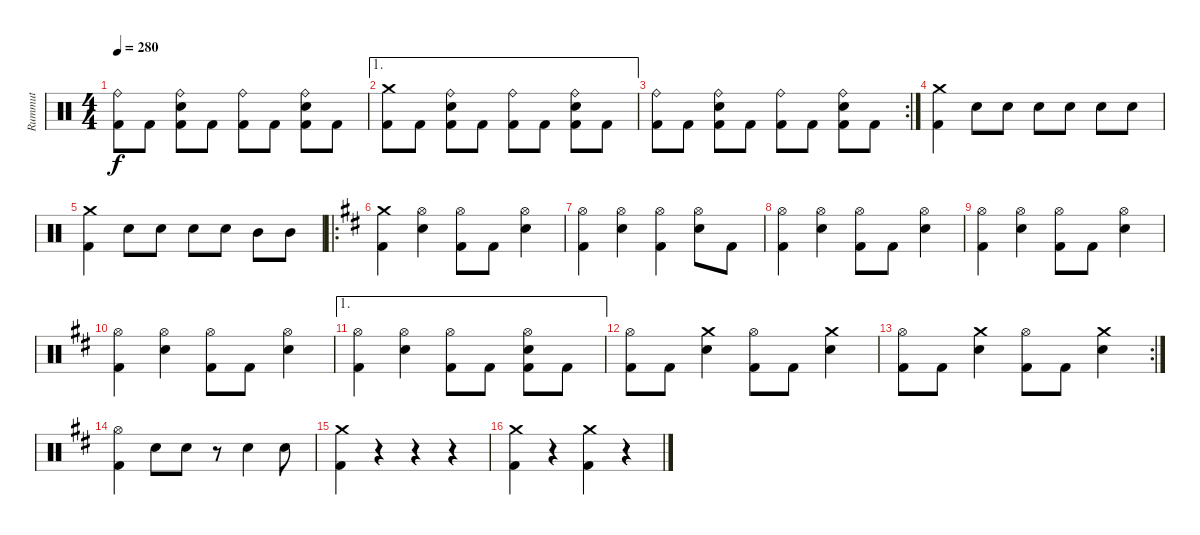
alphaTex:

\track ("Rummut" "Rummut") {instrument percussion}
\staff {score}
\articulation defaults
\ts (4 4)
\tempo 280
\clef neutral
\ks c
("Ride (bell)" "Kick (hit) 2").8{dy f} "Kick (hit) 2".8 ("Ride (bell)" "Snare (hit) 2" "Kick (hit) 2").8 "Kick (hit) 2".8 ("Ride (bell)" "Kick (hit) 2").8 "Kick (hit) 2".8 ("Ride (bell)" "Snare (hit) 2" "Kick (hit) 2").8 "Kick (hit) 2".8 |
\ae 1
("Crash medium (hit)" "Kick (hit) 2").8 "Kick (hit) 2".8 ("Ride (bell)" "Snare (hit) 2" "Kick (hit) 2").8 "Kick (hit) 2".8 ("Ride (bell)" "Kick (hit) 2").8 "Kick (hit) 2".8 ("Ride (bell)" "Snare (hit) 2" "Kick (hit) 2").8 "Kick (hit) 2".8 |
\rc 2
("Ride (bell)" "Kick (hit) 2").8 "Kick (hit) 2".8 ("Ride (bell)" "Snare (hit) 2" "Kick (hit) 2").8 "Kick (hit) 2".8 ("Ride (bell)" "Kick (hit) 2").8 "Kick (hit) 2".8 ("Ride (bell)" "Snare (hit) 2" "Kick (hit) 2").8 "Kick (hit) 2".8 |
("Crash medium (hit)" "Kick (hit) 2").4 "Snare (hit) 2".8 "Snare (hit) 2".8 "Snare (hit) 2".8 "Snare (hit) 2".8 "Snare (hit) 2".8 "Snare (hit) 2".8 |
("Crash medium (hit)" "Kick (hit) 2").4 "Snare (hit) 2".8 "Snare (hit) 2".8 "Snare (hit) 2".8 "Snare (hit) 2".8 "Mid Tom (hit)".8 "Mid Tom (hit)".8 |
\ro
\ks d
("Crash medium (hit)" "Kick (hit) 2").4 ("Hi-Hat (open)" "Snare (hit) 2").4 ("Hi-Hat (open)" "Kick (hit) 2").8 "Kick (hit) 2".8 ("Hi-Hat (open)" "Snare (hit) 2").4 |
("Hi-Hat (open)" "Kick (hit) 2").4 ("Hi-Hat (open)" "Snare (hit) 2").4 ("Hi-Hat (open)" "Kick (hit) 2").4 ("Hi-Hat (open)" "Snare (hit) 2").8 "Kick (hit) 2".8 |
("Hi-Hat (open)" "Kick (hit) 2").4 ("Hi-Hat (open)" "Snare (hit) 2").4 ("Hi-Hat (open)" "Kick (hit) 2").8 "Kick (hit) 2".8 ("Hi-Hat (open)" "Snare (hit) 2").4 |
("Hi-Hat (open)" "Kick (hit) 2").4 ("Hi-Hat (open)" "Snare (hit) 2").4 ("Hi-Hat (open)" "Kick (hit) 2").8 "Kick (hit) 2".8 ("Hi-Hat (open)" "Snare (hit) 2").4 |
("Hi-Hat (open)" "Kick (hit) 2").4 ("Hi-Hat (open)" "Snare (hit) 2").4 ("Hi-Hat (open)" "Kick (hit) 2").8 "Kick (hit) 2".8 ("Hi-Hat (open)" "Snare (hit) 2").4 |
\ae 1
("Hi-Hat (open)" "Kick (hit) 2").4 ("Hi-Hat (open)" "Snare (hit) 2").4 ("Hi-Hat (open)" "Kick (hit) 2").8 "Kick (hit) 2".8 ("Hi-Hat (open)" "Snare (hit) 2" "Kick (hit) 2").8 "Kick (hit) 2".8 |
("Hi-Hat (open)" "Kick (hit) 2").8 "Kick (hit) 2".8 ("Crash medium (hit)" "Snare (hit) 2").4 ("Hi-Hat (open)" "Kick (hit) 2").8 "Kick (hit) 2".8 ("Crash medium (hit)" "Snare (hit) 2").4 |
\rc 2
("Hi-Hat (open)" "Kick (hit) 2").8 "Kick (hit) 2".8 ("Crash medium (hit)" "Snare (hit) 2").4 ("Hi-Hat (open)" "Kick (hit) 2").8 "Kick (hit) 2".8 ("Crash medium (hit)" "Snare (hit) 2").4 |
("Hi-Hat (open)" "Kick (hit) 2").4 "Snare (hit) 2".8 "Snare (hit) 2".8 r.8 "Snare (hit) 2".4 "Snare (hit) 2".8 |
("Crash medium (hit)" "Kick (hit) 2").4 r.4 r.4 r.4 |
("Crash medium (hit)" "Kick (hit) 2").4 r.4 ("Crash medium (hit)" "Kick (hit) 2").4 r.4
